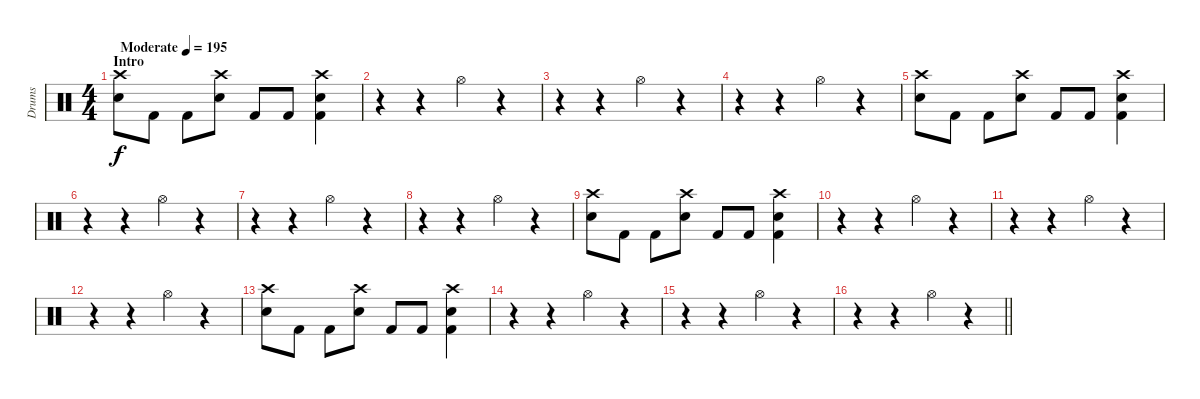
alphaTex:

\track ("Drums" "Drums") {instrument percussion}
\staff {score}
\articulation defaults
\ts (4 4)
\section ("" "Intro")
\tempo (195 "Moderate")
\clef neutral
\ks c
("Crash high (hit)" "Snare (hit) 2").8{dy f} "Kick (hit) 2".8 "Kick (hit) 2".8 ("Crash high (hit)" "Snare (hit) 2").8 "Kick (hit) 2".8 "Kick (hit) 2".8 ("Crash high (hit)" "Snare (hit) 2" "Kick (hit) 2").4 |
r.4 r.4 "Hi-Hat (open)".4 r.4 |
r.4 r.4 "Hi-Hat (open)".4 r.4 |
r.4 r.4 "Hi-Hat (open)".4 r.4 |
("Crash high (hit)" "Snare (hit) 2").8 "Kick (hit) 2".8 "Kick (hit) 2".8 ("Crash high (hit)" "Snare (hit) 2").8 "Kick (hit) 2".8 "Kick (hit) 2".8 ("Crash high (hit)" "Snare (hit) 2" "Kick (hit) 2").4 |
r.4 r.4 "Hi-Hat (open)".4 r.4 |
r.4 r.4 "Hi-Hat (open)".4 r.4 |
r.4 r.4 "Hi-Hat (open)".4 r.4 |
("Crash high (hit)" "Snare (hit) 2").8 "Kick (hit) 2".8 "Kick (hit) 2".8 ("Crash high (hit)" "Snare (hit) 2").8 "Kick (hit) 2".8 "Kick (hit) 2".8 ("Crash high (hit)" "Snare (hit) 2" "Kick (hit) 2").4 |
r.4 r.4 "Hi-Hat (open)".4 r.4 |
r.4 r.4 "Hi-Hat (open)".4 r.4 |
r.4 r.4 "Hi-Hat (open)".4 r.4 |
("Crash high (hit)" "Snare (hit) 2").8 "Kick (hit) 2".8 "Kick (hit) 2".8 ("Crash high (hit)" "Snare (hit) 2").8 "Kick (hit) 2".8 "Kick (hit) 2".8 ("Crash high (hit)" "Snare (hit) 2" "Kick (hit) 2").4 |
r.4 r.4 "Hi-Hat (open)".4 r.4 |
r.4 r.4 "Hi-Hat (open)".4 r.4 |
\barLineRight lightlight
r.4 r.4 "Hi-Hat (open)".4 r.4
